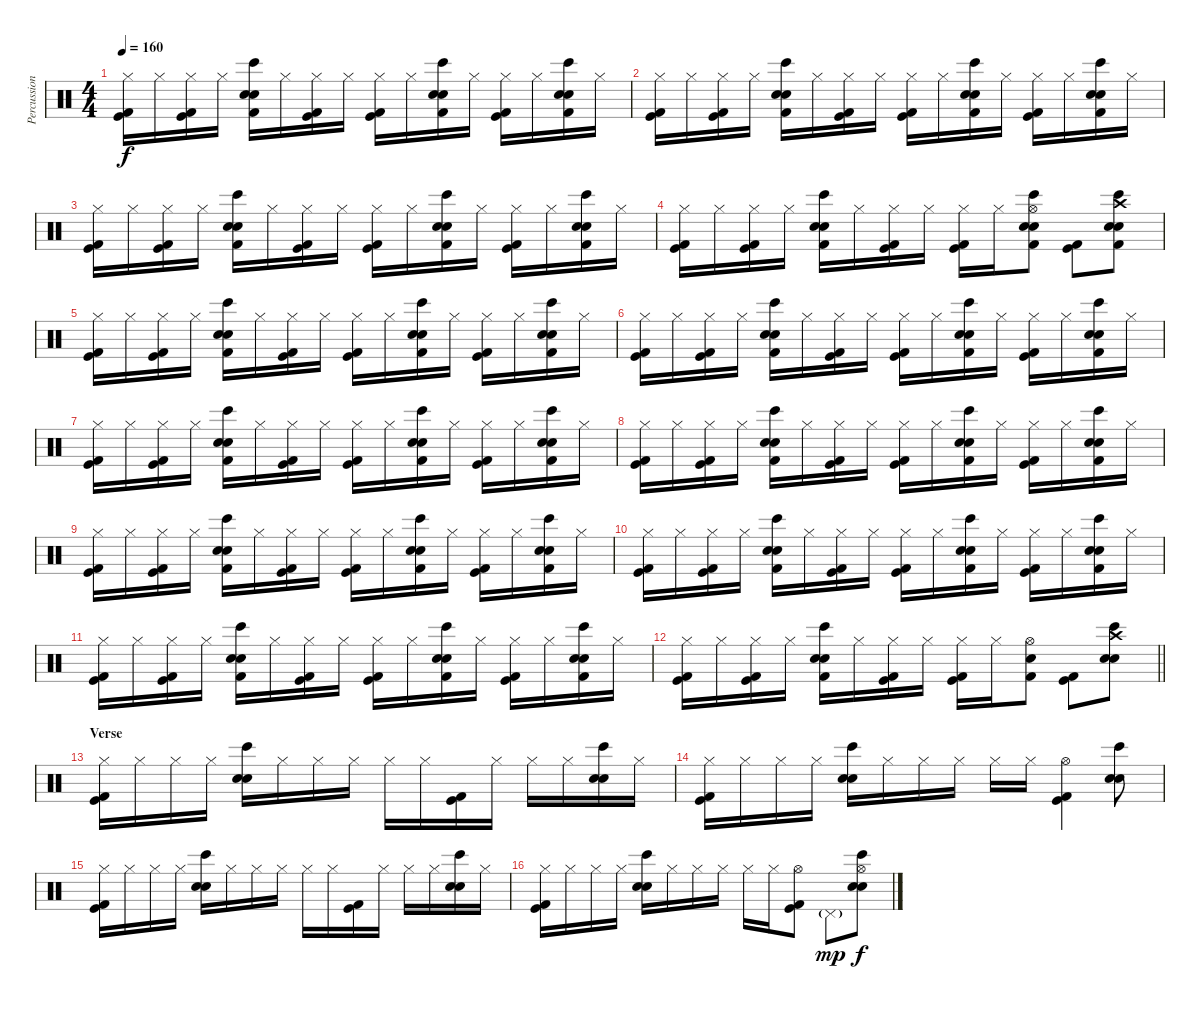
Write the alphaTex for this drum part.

\track ("Percussion" "Percussion") {instrument percussion}
\staff {score}
\articulation defaults
\ts (4 4)
\tempo 160
\clef neutral
\ks c
("Hi-Hat (closed)" "Kick (hit)" "Kick (hit) 2").16{dy f} "Hi-Hat (closed)".16 ("Hi-Hat (closed)" "Kick (hit)" "Kick (hit) 2").16 "Hi-Hat (closed)".16 ("Hand Clap (hit)" "Bongo High (hit)" "Electric Snare (hit)" "Kick (hit) 2").16 "Hi-Hat (closed)".16 ("Hi-Hat (closed)" "Kick (hit)" "Kick (hit) 2").16 "Hi-Hat (closed)".16 ("Hi-Hat (closed)" "Kick (hit)" "Kick (hit) 2").16 "Hi-Hat (closed)".16 ("Hand Clap (hit)" "Bongo High (hit)" "Electric Snare (hit)" "Kick (hit) 2").16 "Hi-Hat (closed)".16 ("Hi-Hat (closed)" "Kick (hit)" "Kick (hit) 2").16 "Hi-Hat (closed)".16 ("Hand Clap (hit)" "Bongo High (hit)" "Electric Snare (hit)" "Kick (hit) 2").16 "Hi-Hat (closed)".16 |
("Hi-Hat (closed)" "Kick (hit)" "Kick (hit) 2").16 "Hi-Hat (closed)".16 ("Hi-Hat (closed)" "Kick (hit)" "Kick (hit) 2").16 "Hi-Hat (closed)".16 ("Hand Clap (hit)" "Bongo High (hit)" "Electric Snare (hit)" "Kick (hit) 2").16 "Hi-Hat (closed)".16 ("Hi-Hat (closed)" "Kick (hit)" "Kick (hit) 2").16 "Hi-Hat (closed)".16 ("Hi-Hat (closed)" "Kick (hit)" "Kick (hit) 2").16 "Hi-Hat (closed)".16 ("Hand Clap (hit)" "Bongo High (hit)" "Electric Snare (hit)" "Kick (hit) 2").16 "Hi-Hat (closed)".16 ("Hi-Hat (closed)" "Kick (hit)" "Kick (hit) 2").16 "Hi-Hat (closed)".16 ("Hand Clap (hit)" "Bongo High (hit)" "Electric Snare (hit)" "Kick (hit) 2").16 "Hi-Hat (closed)".16 |
("Hi-Hat (closed)" "Kick (hit)" "Kick (hit) 2").16 "Hi-Hat (closed)".16 ("Hi-Hat (closed)" "Kick (hit)" "Kick (hit) 2").16 "Hi-Hat (closed)".16 ("Hand Clap (hit)" "Bongo High (hit)" "Electric Snare (hit)" "Kick (hit) 2").16 "Hi-Hat (closed)".16 ("Hi-Hat (closed)" "Kick (hit)" "Kick (hit) 2").16 "Hi-Hat (closed)".16 ("Hi-Hat (closed)" "Kick (hit)" "Kick (hit) 2").16 "Hi-Hat (closed)".16 ("Hand Clap (hit)" "Bongo High (hit)" "Electric Snare (hit)" "Kick (hit) 2").16 "Hi-Hat (closed)".16 ("Hi-Hat (closed)" "Kick (hit)" "Kick (hit) 2").16 "Hi-Hat (closed)".16 ("Hand Clap (hit)" "Bongo High (hit)" "Electric Snare (hit)" "Kick (hit) 2").16 "Hi-Hat (closed)".16 |
("Hi-Hat (closed)" "Kick (hit)" "Kick (hit) 2").16 "Hi-Hat (closed)".16 ("Hi-Hat (closed)" "Kick (hit)" "Kick (hit) 2").16 "Hi-Hat (closed)".16 ("Hand Clap (hit)" "Bongo High (hit)" "Electric Snare (hit)" "Kick (hit) 2").16 "Hi-Hat (closed)".16 ("Hi-Hat (closed)" "Kick (hit)" "Kick (hit) 2").16 "Hi-Hat (closed)".16 ("Hi-Hat (closed)" "Kick (hit)" "Kick (hit) 2").16 "Hi-Hat (closed)".16 ("Hi-Hat (open)" "Hand Clap (hit)" "Bongo High (hit)" "Electric Snare (hit)" "Kick (hit) 2").8 ("Kick (hit)" "Kick (hit) 2").8 ("Crash high (hit)" "Hand Clap (hit)" "Bongo High (hit)" "Electric Snare (hit)" "Kick (hit) 2").8 |
("Hi-Hat (closed)" "Kick (hit)" "Kick (hit) 2").16 "Hi-Hat (closed)".16 ("Hi-Hat (closed)" "Kick (hit)" "Kick (hit) 2").16 "Hi-Hat (closed)".16 ("Hand Clap (hit)" "Bongo High (hit)" "Electric Snare (hit)" "Kick (hit) 2").16 "Hi-Hat (closed)".16 ("Hi-Hat (closed)" "Kick (hit)" "Kick (hit) 2").16 "Hi-Hat (closed)".16 ("Hi-Hat (closed)" "Kick (hit)" "Kick (hit) 2").16 "Hi-Hat (closed)".16 ("Hand Clap (hit)" "Bongo High (hit)" "Electric Snare (hit)" "Kick (hit) 2").16 "Hi-Hat (closed)".16 ("Hi-Hat (closed)" "Kick (hit)" "Kick (hit) 2").16 "Hi-Hat (closed)".16 ("Hand Clap (hit)" "Bongo High (hit)" "Electric Snare (hit)" "Kick (hit) 2").16 "Hi-Hat (closed)".16 |
("Hi-Hat (closed)" "Kick (hit)" "Kick (hit) 2").16 "Hi-Hat (closed)".16 ("Hi-Hat (closed)" "Kick (hit)" "Kick (hit) 2").16 "Hi-Hat (closed)".16 ("Hand Clap (hit)" "Bongo High (hit)" "Electric Snare (hit)" "Kick (hit) 2").16 "Hi-Hat (closed)".16 ("Hi-Hat (closed)" "Kick (hit)" "Kick (hit) 2").16 "Hi-Hat (closed)".16 ("Hi-Hat (closed)" "Kick (hit)" "Kick (hit) 2").16 "Hi-Hat (closed)".16 ("Hand Clap (hit)" "Bongo High (hit)" "Electric Snare (hit)" "Kick (hit) 2").16 "Hi-Hat (closed)".16 ("Hi-Hat (closed)" "Kick (hit)" "Kick (hit) 2").16 "Hi-Hat (closed)".16 ("Hand Clap (hit)" "Bongo High (hit)" "Electric Snare (hit)" "Kick (hit) 2").16 "Hi-Hat (closed)".16 |
("Hi-Hat (closed)" "Kick (hit)" "Kick (hit) 2").16 "Hi-Hat (closed)".16 ("Hi-Hat (closed)" "Kick (hit)" "Kick (hit) 2").16 "Hi-Hat (closed)".16 ("Hand Clap (hit)" "Bongo High (hit)" "Electric Snare (hit)" "Kick (hit) 2").16 "Hi-Hat (closed)".16 ("Hi-Hat (closed)" "Kick (hit)" "Kick (hit) 2").16 "Hi-Hat (closed)".16 ("Hi-Hat (closed)" "Kick (hit)" "Kick (hit) 2").16 "Hi-Hat (closed)".16 ("Hand Clap (hit)" "Bongo High (hit)" "Electric Snare (hit)" "Kick (hit) 2").16 "Hi-Hat (closed)".16 ("Hi-Hat (closed)" "Kick (hit)" "Kick (hit) 2").16 "Hi-Hat (closed)".16 ("Hand Clap (hit)" "Bongo High (hit)" "Electric Snare (hit)" "Kick (hit) 2").16 "Hi-Hat (closed)".16 |
("Hi-Hat (closed)" "Kick (hit)" "Kick (hit) 2").16 "Hi-Hat (closed)".16 ("Hi-Hat (closed)" "Kick (hit)" "Kick (hit) 2").16 "Hi-Hat (closed)".16 ("Hand Clap (hit)" "Bongo High (hit)" "Electric Snare (hit)" "Kick (hit) 2").16 "Hi-Hat (closed)".16 ("Hi-Hat (closed)" "Kick (hit)" "Kick (hit) 2").16 "Hi-Hat (closed)".16 ("Hi-Hat (closed)" "Kick (hit)" "Kick (hit) 2").16 "Hi-Hat (closed)".16 ("Hand Clap (hit)" "Bongo High (hit)" "Electric Snare (hit)" "Kick (hit) 2").16 "Hi-Hat (closed)".16 ("Hi-Hat (closed)" "Kick (hit)" "Kick (hit) 2").16 "Hi-Hat (closed)".16 ("Hand Clap (hit)" "Bongo High (hit)" "Electric Snare (hit)" "Kick (hit) 2").16 "Hi-Hat (closed)".16 |
("Hi-Hat (closed)" "Kick (hit)" "Kick (hit) 2").16 "Hi-Hat (closed)".16 ("Hi-Hat (closed)" "Kick (hit)" "Kick (hit) 2").16 "Hi-Hat (closed)".16 ("Hand Clap (hit)" "Bongo High (hit)" "Electric Snare (hit)" "Kick (hit) 2").16 "Hi-Hat (closed)".16 ("Hi-Hat (closed)" "Kick (hit)" "Kick (hit) 2").16 "Hi-Hat (closed)".16 ("Hi-Hat (closed)" "Kick (hit)" "Kick (hit) 2").16 "Hi-Hat (closed)".16 ("Hand Clap (hit)" "Bongo High (hit)" "Electric Snare (hit)" "Kick (hit) 2").16 "Hi-Hat (closed)".16 ("Hi-Hat (closed)" "Kick (hit)" "Kick (hit) 2").16 "Hi-Hat (closed)".16 ("Hand Clap (hit)" "Bongo High (hit)" "Electric Snare (hit)" "Kick (hit) 2").16 "Hi-Hat (closed)".16 |
("Hi-Hat (closed)" "Kick (hit)" "Kick (hit) 2").16 "Hi-Hat (closed)".16 ("Hi-Hat (closed)" "Kick (hit)" "Kick (hit) 2").16 "Hi-Hat (closed)".16 ("Hand Clap (hit)" "Bongo High (hit)" "Electric Snare (hit)" "Kick (hit) 2").16 "Hi-Hat (closed)".16 ("Hi-Hat (closed)" "Kick (hit)" "Kick (hit) 2").16 "Hi-Hat (closed)".16 ("Hi-Hat (closed)" "Kick (hit)" "Kick (hit) 2").16 "Hi-Hat (closed)".16 ("Hand Clap (hit)" "Bongo High (hit)" "Electric Snare (hit)" "Kick (hit) 2").16 "Hi-Hat (closed)".16 ("Hi-Hat (closed)" "Kick (hit)" "Kick (hit) 2").16 "Hi-Hat (closed)".16 ("Hand Clap (hit)" "Bongo High (hit)" "Electric Snare (hit)" "Kick (hit) 2").16 "Hi-Hat (closed)".16 |
("Hi-Hat (closed)" "Kick (hit)" "Kick (hit) 2").16 "Hi-Hat (closed)".16 ("Hi-Hat (closed)" "Kick (hit)" "Kick (hit) 2").16 "Hi-Hat (closed)".16 ("Hand Clap (hit)" "Bongo High (hit)" "Electric Snare (hit)" "Kick (hit) 2").16 "Hi-Hat (closed)".16 ("Hi-Hat (closed)" "Kick (hit)" "Kick (hit) 2").16 "Hi-Hat (closed)".16 ("Hi-Hat (closed)" "Kick (hit)" "Kick (hit) 2").16 "Hi-Hat (closed)".16 ("Hand Clap (hit)" "Bongo High (hit)" "Electric Snare (hit)" "Kick (hit) 2").16 "Hi-Hat (closed)".16 ("Hi-Hat (closed)" "Kick (hit)" "Kick (hit) 2").16 "Hi-Hat (closed)".16 ("Hand Clap (hit)" "Bongo High (hit)" "Electric Snare (hit)" "Kick (hit) 2").16 "Hi-Hat (closed)".16 |
\barLineRight lightlight
("Hi-Hat (closed)" "Kick (hit)" "Kick (hit) 2").16 "Hi-Hat (closed)".16 ("Hi-Hat (closed)" "Kick (hit)" "Kick (hit) 2").16 "Hi-Hat (closed)".16 ("Hand Clap (hit)" "Bongo High (hit)" "Electric Snare (hit)" "Kick (hit) 2").16 "Hi-Hat (closed)".16 ("Hi-Hat (closed)" "Kick (hit)" "Kick (hit) 2").16 "Hi-Hat (closed)".16 ("Hi-Hat (closed)" "Kick (hit)" "Kick (hit) 2").16 "Hi-Hat (closed)".16 ("Hi-Hat (open)" "Electric Snare (hit)" "Kick (hit) 2").8 ("Kick (hit)" "Kick (hit) 2").8 ("Crash high (hit)" "Hand Clap (hit)" "Bongo High (hit)" "Electric Snare (hit)").8 |
\section ("" "Verse")
("Hi-Hat (closed)" "Kick (hit)" "Kick (hit) 2").16 "Hi-Hat (closed)".16 "Hi-Hat (closed)".16 "Hi-Hat (closed)".16 ("Hand Clap (hit)" "Bongo High (hit)" "Electric Snare (hit)").16 "Hi-Hat (closed)".16 "Hi-Hat (closed)".16 "Hi-Hat (closed)".16 "Hi-Hat (closed)".16 "Hi-Hat (closed)".16 ("Kick (hit)" "Kick (hit) 2").16 "Hi-Hat (closed)".16 "Hi-Hat (closed)".16 "Hi-Hat (closed)".16 ("Hand Clap (hit)" "Bongo High (hit)" "Electric Snare (hit)").16 "Hi-Hat (closed)".16 |
("Hi-Hat (closed)" "Kick (hit)" "Kick (hit) 2").16 "Hi-Hat (closed)".16 "Hi-Hat (closed)".16 "Hi-Hat (closed)".16 ("Hand Clap (hit)" "Bongo High (hit)" "Electric Snare (hit)").16 "Hi-Hat (closed)".16 "Hi-Hat (closed)".16 "Hi-Hat (closed)".16 "Hi-Hat (closed)".16 "Hi-Hat (closed)".16 ("Hi-Hat (open)" "Kick (hit)" "Kick (hit) 2").4 ("Hand Clap (hit)" "Bongo High (hit)" "Electric Snare (hit)").8 |
("Hi-Hat (closed)" "Kick (hit)" "Kick (hit) 2").16 "Hi-Hat (closed)".16 "Hi-Hat (closed)".16 "Hi-Hat (closed)".16 ("Hand Clap (hit)" "Bongo High (hit)" "Electric Snare (hit)").16 "Hi-Hat (closed)".16 "Hi-Hat (closed)".16 "Hi-Hat (closed)".16 "Hi-Hat (closed)".16 "Hi-Hat (closed)".16 ("Kick (hit)" "Kick (hit) 2").16 "Hi-Hat (closed)".16 "Hi-Hat (closed)".16 "Hi-Hat (closed)".16 ("Hand Clap (hit)" "Bongo High (hit)" "Electric Snare (hit)").16 "Hi-Hat (closed)".16 |
("Hi-Hat (closed)" "Kick (hit)" "Kick (hit) 2").16 "Hi-Hat (closed)".16 "Hi-Hat (closed)".16 "Hi-Hat (closed)".16 ("Hand Clap (hit)" "Bongo High (hit)" "Electric Snare (hit)").16 "Hi-Hat (closed)".16 "Hi-Hat (closed)".16 "Hi-Hat (closed)".16 "Hi-Hat (closed)".16 "Hi-Hat (closed)".16 ("Hi-Hat (open)" "Kick (hit)" "Kick (hit) 2").8 "Pedal Hi-Hat (hit)"{g}.8{dy mp} ("Hi-Hat (open)" "Hand Clap (hit)" "Bongo High (hit)" "Electric Snare (hit)").8{dy f}
